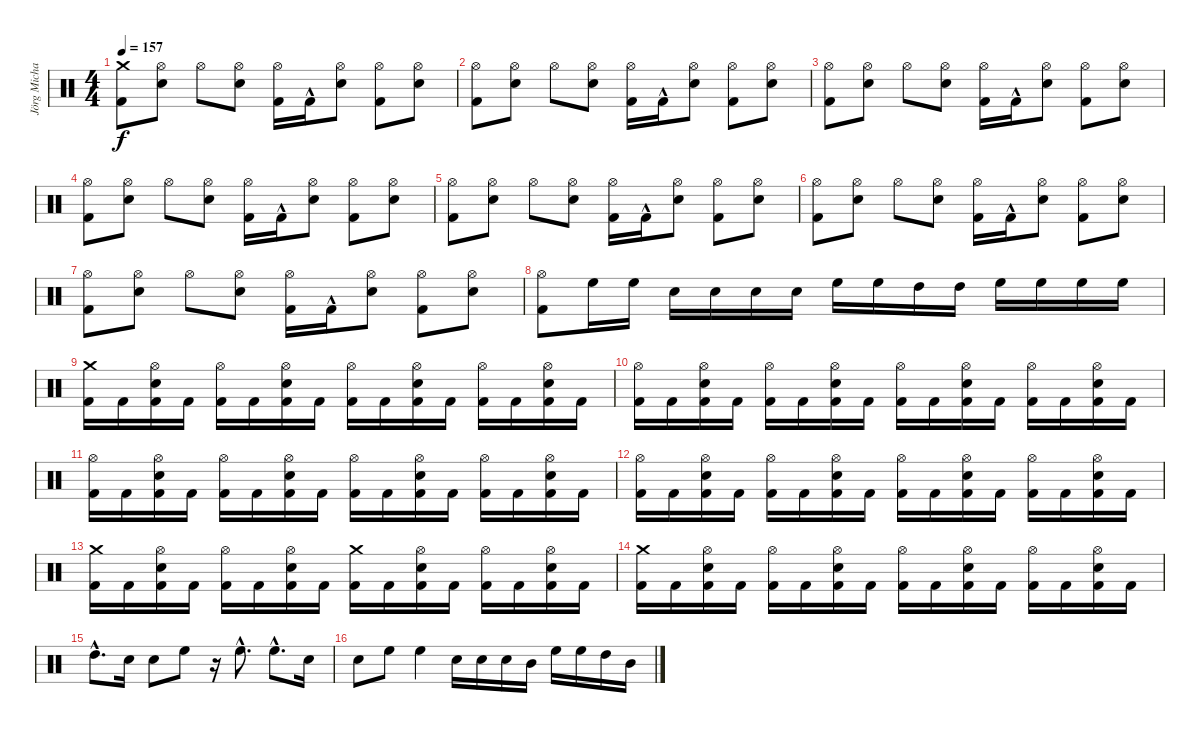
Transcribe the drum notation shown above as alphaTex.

\track ("Jörg Michael" "Jörg Micha") {instrument percussion}
\staff {score}
\articulation defaults
\ts (4 4)
\tempo 157
\clef neutral
\ks c
("Kick (hit) 2" "Crash medium (hit)").8{dy f} ("Snare (hit) 2" "Hi-Hat (open)").8 "Hi-Hat (open)".8 ("Snare (hit) 2" "Hi-Hat (open)").8 ("Kick (hit) 2" "Hi-Hat (open)").16 "Kick (hit) 2"{hac}.16 ("Snare (hit) 2" "Hi-Hat (open)").8 ("Kick (hit) 2" "Hi-Hat (open)").8 ("Snare (hit) 2" "Hi-Hat (open)").8 |
("Hi-Hat (open)" "Kick (hit) 2").8 ("Snare (hit) 2" "Hi-Hat (open)").8 "Hi-Hat (open)".8 ("Snare (hit) 2" "Hi-Hat (open)").8 ("Kick (hit) 2" "Hi-Hat (open)").16 "Kick (hit) 2"{hac}.16 ("Snare (hit) 2" "Hi-Hat (open)").8 ("Kick (hit) 2" "Hi-Hat (open)").8 ("Snare (hit) 2" "Hi-Hat (open)").8 |
("Hi-Hat (open)" "Kick (hit) 2").8 ("Snare (hit) 2" "Hi-Hat (open)").8 "Hi-Hat (open)".8 ("Snare (hit) 2" "Hi-Hat (open)").8 ("Kick (hit) 2" "Hi-Hat (open)").16 "Kick (hit) 2"{hac}.16 ("Snare (hit) 2" "Hi-Hat (open)").8 ("Kick (hit) 2" "Hi-Hat (open)").8 ("Snare (hit) 2" "Hi-Hat (open)").8 |
("Hi-Hat (open)" "Kick (hit) 2").8 ("Snare (hit) 2" "Hi-Hat (open)").8 "Hi-Hat (open)".8 ("Snare (hit) 2" "Hi-Hat (open)").8 ("Kick (hit) 2" "Hi-Hat (open)").16 "Kick (hit) 2"{hac}.16 ("Snare (hit) 2" "Hi-Hat (open)").8 ("Kick (hit) 2" "Hi-Hat (open)").8 ("Snare (hit) 2" "Hi-Hat (open)").8 |
("Hi-Hat (open)" "Kick (hit) 2").8 ("Snare (hit) 2" "Hi-Hat (open)").8 "Hi-Hat (open)".8 ("Snare (hit) 2" "Hi-Hat (open)").8 ("Kick (hit) 2" "Hi-Hat (open)").16 "Kick (hit) 2"{hac}.16 ("Snare (hit) 2" "Hi-Hat (open)").8 ("Kick (hit) 2" "Hi-Hat (open)").8 ("Snare (hit) 2" "Hi-Hat (open)").8 |
("Hi-Hat (open)" "Kick (hit) 2").8 ("Snare (hit) 2" "Hi-Hat (open)").8 "Hi-Hat (open)".8 ("Snare (hit) 2" "Hi-Hat (open)").8 ("Kick (hit) 2" "Hi-Hat (open)").16 "Kick (hit) 2"{hac}.16 ("Snare (hit) 2" "Hi-Hat (open)").8 ("Kick (hit) 2" "Hi-Hat (open)").8 ("Snare (hit) 2" "Hi-Hat (open)").8 |
("Hi-Hat (open)" "Kick (hit) 2").8 ("Snare (hit) 2" "Hi-Hat (open)").8 "Hi-Hat (open)".8 ("Snare (hit) 2" "Hi-Hat (open)").8 ("Kick (hit) 2" "Hi-Hat (open)").16 "Kick (hit) 2"{hac}.16 ("Snare (hit) 2" "Hi-Hat (open)").8 ("Kick (hit) 2" "Hi-Hat (open)").8 ("Snare (hit) 2" "Hi-Hat (open)").8 |
("Kick (hit) 2" "Hi-Hat (open)").8 "High Floor Tom (hit)".16 "High Floor Tom (hit)".16 "Snare (hit) 2".16 "Snare (hit) 2".16 "Snare (hit) 2".16 "Snare (hit) 2".16 "High Floor Tom (hit)".16 "High Floor Tom (hit)".16 "High Tom (hit)".16 "High Tom (hit)".16 "High Floor Tom (hit)".16 "High Floor Tom (hit)".16 "High Floor Tom (hit)".16 "High Floor Tom (hit)".16 |
("Crash medium (hit)" "Kick (hit) 2").16 "Kick (hit) 2".16 ("Snare (hit) 2" "Hi-Hat (open)" "Kick (hit) 2").16 "Kick (hit) 2".16 ("Hi-Hat (open)" "Kick (hit) 2").16 "Kick (hit) 2".16 ("Snare (hit) 2" "Hi-Hat (open)" "Kick (hit) 2").16 "Kick (hit) 2".16 ("Hi-Hat (open)" "Kick (hit) 2").16 "Kick (hit) 2".16 ("Snare (hit) 2" "Hi-Hat (open)" "Kick (hit) 2").16 "Kick (hit) 2".16 ("Hi-Hat (open)" "Kick (hit) 2").16 "Kick (hit) 2".16 ("Snare (hit) 2" "Hi-Hat (open)" "Kick (hit) 2").16 "Kick (hit) 2".16 |
("Hi-Hat (open)" "Kick (hit) 2").16 "Kick (hit) 2".16 ("Hi-Hat (open)" "Snare (hit) 2" "Kick (hit) 2").16 "Kick (hit) 2".16 ("Hi-Hat (open)" "Kick (hit) 2").16 "Kick (hit) 2".16 ("Hi-Hat (open)" "Snare (hit) 2" "Kick (hit) 2").16 "Kick (hit) 2".16 ("Hi-Hat (open)" "Kick (hit) 2").16 "Kick (hit) 2".16 ("Hi-Hat (open)" "Snare (hit) 2" "Kick (hit) 2").16 "Kick (hit) 2".16 ("Hi-Hat (open)" "Kick (hit) 2").16 "Kick (hit) 2".16 ("Hi-Hat (open)" "Snare (hit) 2" "Kick (hit) 2").16 "Kick (hit) 2".16 |
("Hi-Hat (open)" "Kick (hit) 2").16 "Kick (hit) 2".16 ("Hi-Hat (open)" "Snare (hit) 2" "Kick (hit) 2").16 "Kick (hit) 2".16 ("Hi-Hat (open)" "Kick (hit) 2").16 "Kick (hit) 2".16 ("Hi-Hat (open)" "Snare (hit) 2" "Kick (hit) 2").16 "Kick (hit) 2".16 ("Hi-Hat (open)" "Kick (hit) 2").16 "Kick (hit) 2".16 ("Hi-Hat (open)" "Snare (hit) 2" "Kick (hit) 2").16 "Kick (hit) 2".16 ("Hi-Hat (open)" "Kick (hit) 2").16 "Kick (hit) 2".16 ("Hi-Hat (open)" "Snare (hit) 2" "Kick (hit) 2").16 "Kick (hit) 2".16 |
("Hi-Hat (open)" "Kick (hit) 2").16 "Kick (hit) 2".16 ("Hi-Hat (open)" "Snare (hit) 2" "Kick (hit) 2").16 "Kick (hit) 2".16 ("Hi-Hat (open)" "Kick (hit) 2").16 "Kick (hit) 2".16 ("Hi-Hat (open)" "Snare (hit) 2" "Kick (hit) 2").16 "Kick (hit) 2".16 ("Hi-Hat (open)" "Kick (hit) 2").16 "Kick (hit) 2".16 ("Hi-Hat (open)" "Snare (hit) 2" "Kick (hit) 2").16 "Kick (hit) 2".16 ("Hi-Hat (open)" "Kick (hit) 2").16 "Kick (hit) 2".16 ("Hi-Hat (open)" "Snare (hit) 2" "Kick (hit) 2").16 "Kick (hit) 2".16 |
("Crash medium (hit)" "Kick (hit) 2").16 "Kick (hit) 2".16 ("Hi-Hat (open)" "Snare (hit) 2" "Kick (hit) 2").16 "Kick (hit) 2".16 ("Hi-Hat (open)" "Kick (hit) 2").16 "Kick (hit) 2".16 ("Hi-Hat (open)" "Snare (hit) 2" "Kick (hit) 2").16 "Kick (hit) 2".16 ("Crash medium (hit)" "Kick (hit) 2").16 "Kick (hit) 2".16 ("Hi-Hat (open)" "Snare (hit) 2" "Kick (hit) 2").16 "Kick (hit) 2".16 ("Hi-Hat (open)" "Kick (hit) 2").16 "Kick (hit) 2".16 ("Hi-Hat (open)" "Snare (hit) 2" "Kick (hit) 2").16 "Kick (hit) 2".16 |
("Crash medium (hit)" "Kick (hit) 2").16 "Kick (hit) 2".16 ("Hi-Hat (open)" "Snare (hit) 2" "Kick (hit) 2").16 "Kick (hit) 2".16 ("Hi-Hat (open)" "Kick (hit) 2").16 "Kick (hit) 2".16 ("Hi-Hat (open)" "Snare (hit) 2" "Kick (hit) 2").16 "Kick (hit) 2".16 ("Hi-Hat (open)" "Kick (hit) 2").16 "Kick (hit) 2".16 ("Hi-Hat (open)" "Snare (hit) 2" "Kick (hit) 2").16 "Kick (hit) 2".16 ("Hi-Hat (open)" "Kick (hit) 2").16 "Kick (hit) 2".16 ("Hi-Hat (open)" "Snare (hit) 2" "Kick (hit) 2").16 "Kick (hit) 2".16 |
"High Tom (hit)"{hac}.8{d} "Snare (hit) 2".16 "Snare (hit) 2".8 "High Floor Tom (hit)".8 r.16 "High Floor Tom (hit)"{hac}.8{d} "High Floor Tom (hit)"{hac}.8{d} "Snare (hit) 2".16 |
"Snare (hit) 2".8 "High Floor Tom (hit)".8 "High Floor Tom (hit)".4 "Snare (hit) 2".16 "Snare (hit) 2".16 "Snare (hit) 2".16 "Mid Tom (hit)".16 "High Floor Tom (hit)".16 "High Floor Tom (hit)".16 "High Tom (hit)".16 "Mid Tom (hit)".16
